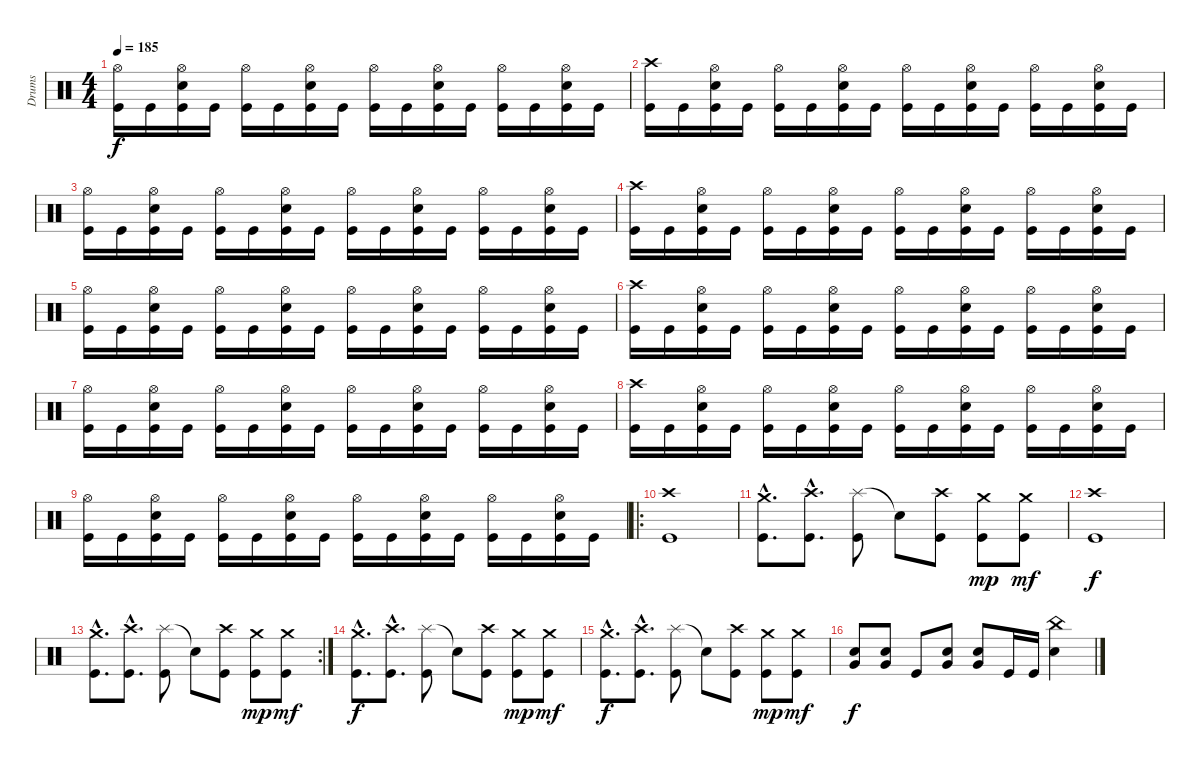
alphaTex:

\track ("Drums" "Drums") {instrument percussion}
\staff {score}
\articulation defaults
\ts (4 4)
\tempo 185
\clef neutral
\ks c
("Hi-Hat (open)" "Kick (hit)").16{dy f} "Kick (hit)".16 ("Hi-Hat (open)" "Electric Snare (hit)" "Kick (hit)").16 "Kick (hit)".16 ("Hi-Hat (open)" "Kick (hit)").16 "Kick (hit)".16 ("Hi-Hat (open)" "Electric Snare (hit)" "Kick (hit)").16 "Kick (hit)".16 ("Hi-Hat (open)" "Kick (hit)").16 "Kick (hit)".16 ("Hi-Hat (open)" "Electric Snare (hit)" "Kick (hit)").16 "Kick (hit)".16 ("Hi-Hat (open)" "Kick (hit)").16 "Kick (hit)".16 ("Hi-Hat (open)" "Electric Snare (hit)" "Kick (hit)").16 "Kick (hit)".16 |
("Crash high (hit)" "Kick (hit)").16 "Kick (hit)".16 ("Hi-Hat (open)" "Electric Snare (hit)" "Kick (hit)").16 "Kick (hit)".16 ("Hi-Hat (open)" "Kick (hit)").16 "Kick (hit)".16 ("Hi-Hat (open)" "Electric Snare (hit)" "Kick (hit)").16 "Kick (hit)".16 ("Hi-Hat (open)" "Kick (hit)").16 "Kick (hit)".16 ("Hi-Hat (open)" "Electric Snare (hit)" "Kick (hit)").16 "Kick (hit)".16 ("Hi-Hat (open)" "Kick (hit)").16 "Kick (hit)".16 ("Hi-Hat (open)" "Electric Snare (hit)" "Kick (hit)").16 "Kick (hit)".16 |
("Hi-Hat (open)" "Kick (hit)").16 "Kick (hit)".16 ("Hi-Hat (open)" "Electric Snare (hit)" "Kick (hit)").16 "Kick (hit)".16 ("Hi-Hat (open)" "Kick (hit)").16 "Kick (hit)".16 ("Hi-Hat (open)" "Electric Snare (hit)" "Kick (hit)").16 "Kick (hit)".16 ("Hi-Hat (open)" "Kick (hit)").16 "Kick (hit)".16 ("Hi-Hat (open)" "Electric Snare (hit)" "Kick (hit)").16 "Kick (hit)".16 ("Hi-Hat (open)" "Kick (hit)").16 "Kick (hit)".16 ("Hi-Hat (open)" "Electric Snare (hit)" "Kick (hit)").16 "Kick (hit)".16 |
("Crash high (hit)" "Kick (hit)").16 "Kick (hit)".16 ("Hi-Hat (open)" "Electric Snare (hit)" "Kick (hit)").16 "Kick (hit)".16 ("Hi-Hat (open)" "Kick (hit)").16 "Kick (hit)".16 ("Hi-Hat (open)" "Electric Snare (hit)" "Kick (hit)").16 "Kick (hit)".16 ("Hi-Hat (open)" "Kick (hit)").16 "Kick (hit)".16 ("Hi-Hat (open)" "Electric Snare (hit)" "Kick (hit)").16 "Kick (hit)".16 ("Hi-Hat (open)" "Kick (hit)").16 "Kick (hit)".16 ("Hi-Hat (open)" "Electric Snare (hit)" "Kick (hit)").16 "Kick (hit)".16 |
("Hi-Hat (open)" "Kick (hit)").16 "Kick (hit)".16 ("Hi-Hat (open)" "Electric Snare (hit)" "Kick (hit)").16 "Kick (hit)".16 ("Hi-Hat (open)" "Kick (hit)").16 "Kick (hit)".16 ("Hi-Hat (open)" "Electric Snare (hit)" "Kick (hit)").16 "Kick (hit)".16 ("Hi-Hat (open)" "Kick (hit)").16 "Kick (hit)".16 ("Hi-Hat (open)" "Electric Snare (hit)" "Kick (hit)").16 "Kick (hit)".16 ("Hi-Hat (open)" "Kick (hit)").16 "Kick (hit)".16 ("Hi-Hat (open)" "Electric Snare (hit)" "Kick (hit)").16 "Kick (hit)".16 |
("Crash high (hit)" "Kick (hit)").16 "Kick (hit)".16 ("Hi-Hat (open)" "Electric Snare (hit)" "Kick (hit)").16 "Kick (hit)".16 ("Hi-Hat (open)" "Kick (hit)").16 "Kick (hit)".16 ("Hi-Hat (open)" "Electric Snare (hit)" "Kick (hit)").16 "Kick (hit)".16 ("Hi-Hat (open)" "Kick (hit)").16 "Kick (hit)".16 ("Hi-Hat (open)" "Electric Snare (hit)" "Kick (hit)").16 "Kick (hit)".16 ("Hi-Hat (open)" "Kick (hit)").16 "Kick (hit)".16 ("Hi-Hat (open)" "Electric Snare (hit)" "Kick (hit)").16 "Kick (hit)".16 |
("Hi-Hat (open)" "Kick (hit)").16 "Kick (hit)".16 ("Hi-Hat (open)" "Electric Snare (hit)" "Kick (hit)").16 "Kick (hit)".16 ("Hi-Hat (open)" "Kick (hit)").16 "Kick (hit)".16 ("Hi-Hat (open)" "Electric Snare (hit)" "Kick (hit)").16 "Kick (hit)".16 ("Hi-Hat (open)" "Kick (hit)").16 "Kick (hit)".16 ("Hi-Hat (open)" "Electric Snare (hit)" "Kick (hit)").16 "Kick (hit)".16 ("Hi-Hat (open)" "Kick (hit)").16 "Kick (hit)".16 ("Hi-Hat (open)" "Electric Snare (hit)" "Kick (hit)").16 "Kick (hit)".16 |
("Crash high (hit)" "Kick (hit)").16 "Kick (hit)".16 ("Hi-Hat (open)" "Electric Snare (hit)" "Kick (hit)").16 "Kick (hit)".16 ("Hi-Hat (open)" "Kick (hit)").16 "Kick (hit)".16 ("Hi-Hat (open)" "Electric Snare (hit)" "Kick (hit)").16 "Kick (hit)".16 ("Hi-Hat (open)" "Kick (hit)").16 "Kick (hit)".16 ("Hi-Hat (open)" "Electric Snare (hit)" "Kick (hit)").16 "Kick (hit)".16 ("Hi-Hat (open)" "Kick (hit)").16 "Kick (hit)".16 ("Hi-Hat (open)" "Electric Snare (hit)" "Kick (hit)").16 "Kick (hit)".16 |
("Hi-Hat (open)" "Kick (hit)").16 "Kick (hit)".16 ("Hi-Hat (open)" "Electric Snare (hit)" "Kick (hit)").16 "Kick (hit)".16 ("Hi-Hat (open)" "Kick (hit)").16 "Kick (hit)".16 ("Hi-Hat (open)" "Electric Snare (hit)" "Kick (hit)").16 "Kick (hit)".16 ("Hi-Hat (open)" "Kick (hit)").16 "Kick (hit)".16 ("Hi-Hat (open)" "Electric Snare (hit)" "Kick (hit)").16 "Kick (hit)".16 ("Hi-Hat (open)" "Kick (hit)").16 "Kick (hit)".16 ("Hi-Hat (open)" "Electric Snare (hit)" "Kick (hit)").16 "Kick (hit)".16 |
\ro
("Crash high (hit)" "Kick (hit)").1 |
("Crash medium (hit)"{hac} "Kick (hit)"{hac}).8{d} ("Crash high (hit)"{hac} "Kick (hit)"{hac}).8{d} ("Splash (hit)" "Kick (hit)").8 "Snare (hit)"{t}.8 ("Crash high (hit)" "Kick (hit)").8 ("Crash medium (hit)" "Kick (hit)").8{dy mp} ("Crash medium (hit)" "Kick (hit)").8{dy mf} |
("Crash high (hit)" "Kick (hit)").1{dy f} |
\rc 2
("Crash medium (hit)"{hac} "Kick (hit)"{hac}).8{d} ("Crash high (hit)"{hac} "Kick (hit)"{hac}).8{d} ("Splash (hit)" "Kick (hit)").8 "Snare (hit)"{t}.8 ("Crash high (hit)" "Kick (hit)").8 ("Crash medium (hit)" "Kick (hit)").8{dy mp} ("Crash medium (hit)" "Kick (hit)").8{dy mf} |
("Crash medium (hit)"{hac} "Kick (hit)"{hac}).8{d dy f} ("Crash high (hit)"{hac} "Kick (hit)"{hac}).8{d} ("Splash (hit)" "Kick (hit)").8 "Snare (hit)"{t}.8 ("Crash high (hit)" "Kick (hit)").8 ("Crash medium (hit)" "Kick (hit)").8{dy mp} ("Crash medium (hit)" "Kick (hit)").8{dy mf} |
("Crash medium (hit)"{hac} "Kick (hit)"{hac}).8{d dy f} ("Crash high (hit)"{hac} "Kick (hit)"{hac}).8{d} ("Splash (hit)" "Kick (hit)").8 "Snare (hit)"{t}.8 ("Crash high (hit)" "Kick (hit)").8 ("Crash medium (hit)" "Kick (hit)").8{dy mp} ("Crash medium (hit)" "Kick (hit)").8{dy mf} |
("Very Low Tom (hit)" "Electric Snare (hit)").8{dy f} ("Very Low Tom (hit)" "Electric Snare (hit)").8 "Kick (hit)".8 ("Very Low Tom (hit)" "Electric Snare (hit)").8 ("Very Low Tom (hit)" "Electric Snare (hit)").8 "Kick (hit)".16 "Kick (hit)".16 ("China (hit)" "Electric Snare (hit)").4
